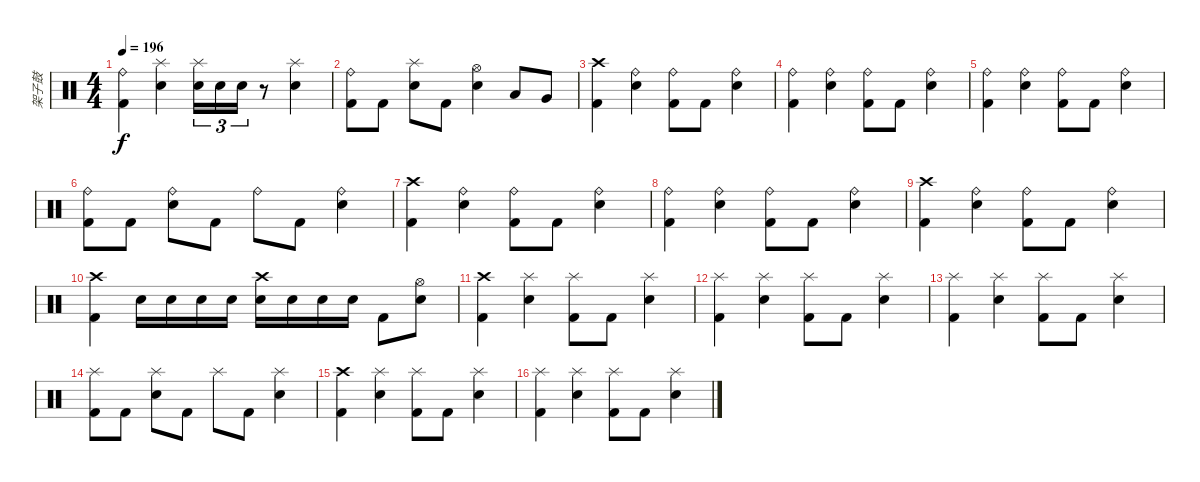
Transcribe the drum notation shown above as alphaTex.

\track ("架子鼓" "架子鼓") {instrument percussion}
\staff {score}
\articulation defaults
\ts (4 4)
\tempo 196
\clef neutral
\ks c
("Ride (bell)" "Kick (hit) 2").4{dy f} ("Splash (hit)" "Snare (hit) 2").4 ("Splash (hit)" "Snare (hit) 2").16{tu (3 2)} "Snare (hit) 2".16{tu (3 2)} "Snare (hit) 2".16{tu (3 2)} r.8 ("Splash (hit)" "Snare (hit) 2").4 |
("Ride (bell)" "Kick (hit) 2").8 "Kick (hit) 2".8 ("Splash (hit)" "Snare (hit) 2").8 "Kick (hit) 2".8 ("Hi-Hat (open)" "Snare (hit) 2").4 "Low Tom (hit)".8 "Very Low Tom (hit)".8 |
("Crash high (hit)" "Kick (hit) 2").4 ("Ride (bell)" "Snare (hit) 2").4 ("Ride (bell)" "Kick (hit) 2").8 "Kick (hit) 2".8 ("Ride (bell)" "Snare (hit) 2").4 |
("Ride (bell)" "Kick (hit) 2").4 ("Ride (bell)" "Snare (hit) 2").4 ("Ride (bell)" "Kick (hit) 2").8 "Kick (hit) 2".8 ("Ride (bell)" "Snare (hit) 2").4 |
("Ride (bell)" "Kick (hit) 2").4 ("Ride (bell)" "Snare (hit) 2").4 ("Ride (bell)" "Kick (hit) 2").8 "Kick (hit) 2".8 ("Ride (bell)" "Snare (hit) 2").4 |
("Ride (bell)" "Kick (hit) 2").8 "Kick (hit) 2".8 ("Ride (bell)" "Snare (hit) 2").8 "Kick (hit) 2".8 "Ride (bell)".8 "Kick (hit) 2".8 ("Ride (bell)" "Snare (hit) 2").4 |
("Crash high (hit)" "Kick (hit) 2").4 ("Ride (bell)" "Snare (hit) 2").4 ("Ride (bell)" "Kick (hit) 2").8 "Kick (hit) 2".8 ("Ride (bell)" "Snare (hit) 2").4 |
("Ride (bell)" "Kick (hit) 2").4 ("Ride (bell)" "Snare (hit) 2").4 ("Ride (bell)" "Kick (hit) 2").8 "Kick (hit) 2".8 ("Ride (bell)" "Snare (hit) 2").4 |
("Crash high (hit)" "Kick (hit) 2").4 ("Ride (bell)" "Snare (hit) 2").4 ("Ride (bell)" "Kick (hit) 2").8 "Kick (hit) 2".8 ("Ride (bell)" "Snare (hit) 2").4 |
("Crash high (hit)" "Kick (hit) 2").4 "Snare (hit) 2".16 "Snare (hit) 2".16 "Snare (hit) 2".16 "Snare (hit) 2".16 ("Crash high (hit)" "Electric Snare (hit)").16 "Electric Snare (hit)".16 "Electric Snare (hit)".16 "Electric Snare (hit)".16 "Kick (hit) 2".8 ("Hi-Hat (open)" "Electric Snare (hit)").8 |
("Crash high (hit)" "Kick (hit) 2").4 ("Splash (hit)" "Snare (hit) 2").4 ("Splash (hit)" "Kick (hit) 2").8 "Kick (hit) 2".8 ("Splash (hit)" "Snare (hit) 2").4 |
("Splash (hit)" "Kick (hit) 2").4 ("Splash (hit)" "Snare (hit) 2").4 ("Splash (hit)" "Kick (hit) 2").8 "Kick (hit) 2".8 ("Splash (hit)" "Snare (hit) 2").4 |
("Splash (hit)" "Kick (hit) 2").4 ("Splash (hit)" "Snare (hit) 2").4 ("Splash (hit)" "Kick (hit) 2").8 "Kick (hit) 2".8 ("Splash (hit)" "Snare (hit) 2").4 |
("Splash (hit)" "Kick (hit) 2").8 "Kick (hit) 2".8 ("Splash (hit)" "Snare (hit) 2").8 "Kick (hit) 2".8 "Splash (hit)".8 "Kick (hit) 2".8 ("Splash (hit)" "Snare (hit) 2").4 |
("Crash high (hit)" "Kick (hit) 2").4 ("Splash (hit)" "Snare (hit) 2").4 ("Splash (hit)" "Kick (hit) 2").8 "Kick (hit) 2".8 ("Splash (hit)" "Snare (hit) 2").4 |
("Splash (hit)" "Kick (hit) 2").4 ("Splash (hit)" "Snare (hit) 2").4 ("Splash (hit)" "Kick (hit) 2").8 "Kick (hit) 2".8 ("Splash (hit)" "Snare (hit) 2").4
